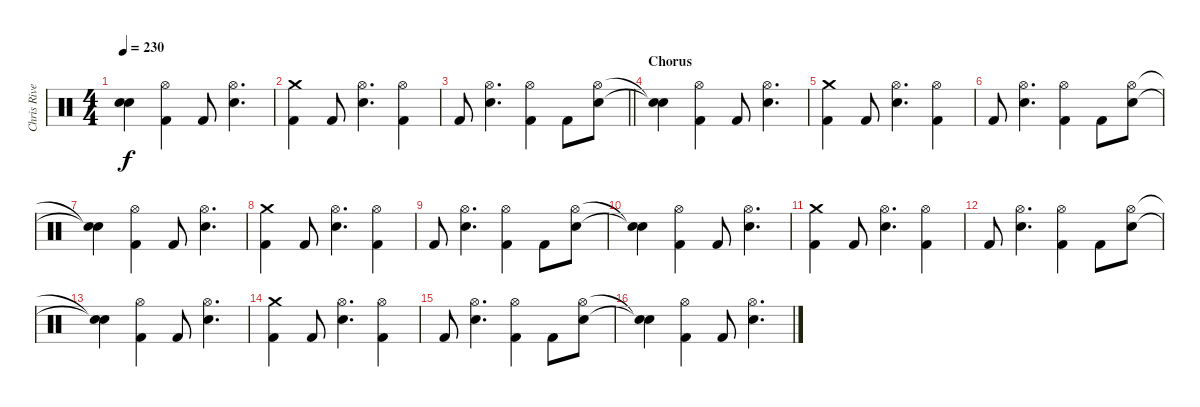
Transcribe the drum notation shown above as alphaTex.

\track ("Chris Rivers" "Chris Rive") {instrument percussion}
\staff {score}
\articulation defaults
\ts (4 4)
\tempo 230
\clef neutral
\ks c
("Snare (hit)"{t} "Snare (hit)"{t}).4{dy f} ("Hi-Hat (open)" "Kick (hit) 2").4 "Kick (hit) 2".8 ("Hi-Hat (open)" "Electric Snare (hit)").4{d} |
("Crash medium (hit)" "Kick (hit) 2").4 "Kick (hit) 2".8 ("Hi-Hat (open)" "Electric Snare (hit)").4{d} ("Hi-Hat (open)" "Kick (hit) 2").4 |
\barLineRight lightlight "Kick (hit) 2".8
("Hi-Hat (open)" "Electric Snare (hit)").4{d} ("Hi-Hat (open)" "Kick (hit) 2").4 "Kick (hit) 2".8 ("Hi-Hat (open)" "Electric Snare (hit)").8 |
\section ("" "Chorus")
("Snare (hit)"{t} "Snare (hit)"{t}).4 ("Hi-Hat (open)" "Kick (hit) 2").4 "Kick (hit) 2".8 ("Hi-Hat (open)" "Electric Snare (hit)").4{d} |
("Crash medium (hit)" "Kick (hit) 2").4 "Kick (hit) 2".8 ("Hi-Hat (open)" "Electric Snare (hit)").4{d} ("Hi-Hat (open)" "Kick (hit) 2").4 |
"Kick (hit) 2".8 ("Hi-Hat (open)" "Electric Snare (hit)").4{d} ("Hi-Hat (open)" "Kick (hit) 2").4 "Kick (hit) 2".8 ("Hi-Hat (open)" "Electric Snare (hit)").8 |
("Snare (hit)"{t} "Snare (hit)"{t}).4 ("Hi-Hat (open)" "Kick (hit) 2").4 "Kick (hit) 2".8 ("Hi-Hat (open)" "Electric Snare (hit)").4{d} |
("Crash medium (hit)" "Kick (hit) 2").4 "Kick (hit) 2".8 ("Hi-Hat (open)" "Electric Snare (hit)").4{d} ("Hi-Hat (open)" "Kick (hit) 2").4 |
"Kick (hit) 2".8 ("Hi-Hat (open)" "Electric Snare (hit)").4{d} ("Hi-Hat (open)" "Kick (hit) 2").4 "Kick (hit) 2".8 ("Hi-Hat (open)" "Electric Snare (hit)").8 |
("Snare (hit)"{t} "Snare (hit)"{t}).4 ("Hi-Hat (open)" "Kick (hit) 2").4 "Kick (hit) 2".8 ("Hi-Hat (open)" "Electric Snare (hit)").4{d} |
("Crash medium (hit)" "Kick (hit) 2").4 "Kick (hit) 2".8 ("Hi-Hat (open)" "Electric Snare (hit)").4{d} ("Hi-Hat (open)" "Kick (hit) 2").4 |
"Kick (hit) 2".8 ("Hi-Hat (open)" "Electric Snare (hit)").4{d} ("Hi-Hat (open)" "Kick (hit) 2").4 "Kick (hit) 2".8 ("Hi-Hat (open)" "Electric Snare (hit)").8 |
("Snare (hit)"{t} "Snare (hit)"{t}).4 ("Hi-Hat (open)" "Kick (hit) 2").4 "Kick (hit) 2".8 ("Hi-Hat (open)" "Electric Snare (hit)").4{d} |
("Crash medium (hit)" "Kick (hit) 2").4 "Kick (hit) 2".8 ("Hi-Hat (open)" "Electric Snare (hit)").4{d} ("Hi-Hat (open)" "Kick (hit) 2").4 |
"Kick (hit) 2".8 ("Hi-Hat (open)" "Electric Snare (hit)").4{d} ("Hi-Hat (open)" "Kick (hit) 2").4 "Kick (hit) 2".8 ("Hi-Hat (open)" "Electric Snare (hit)").8 |
("Snare (hit)"{t} "Snare (hit)"{t}).4 ("Hi-Hat (open)" "Kick (hit) 2").4 "Kick (hit) 2".8 ("Hi-Hat (open)" "Electric Snare (hit)").4{d}
